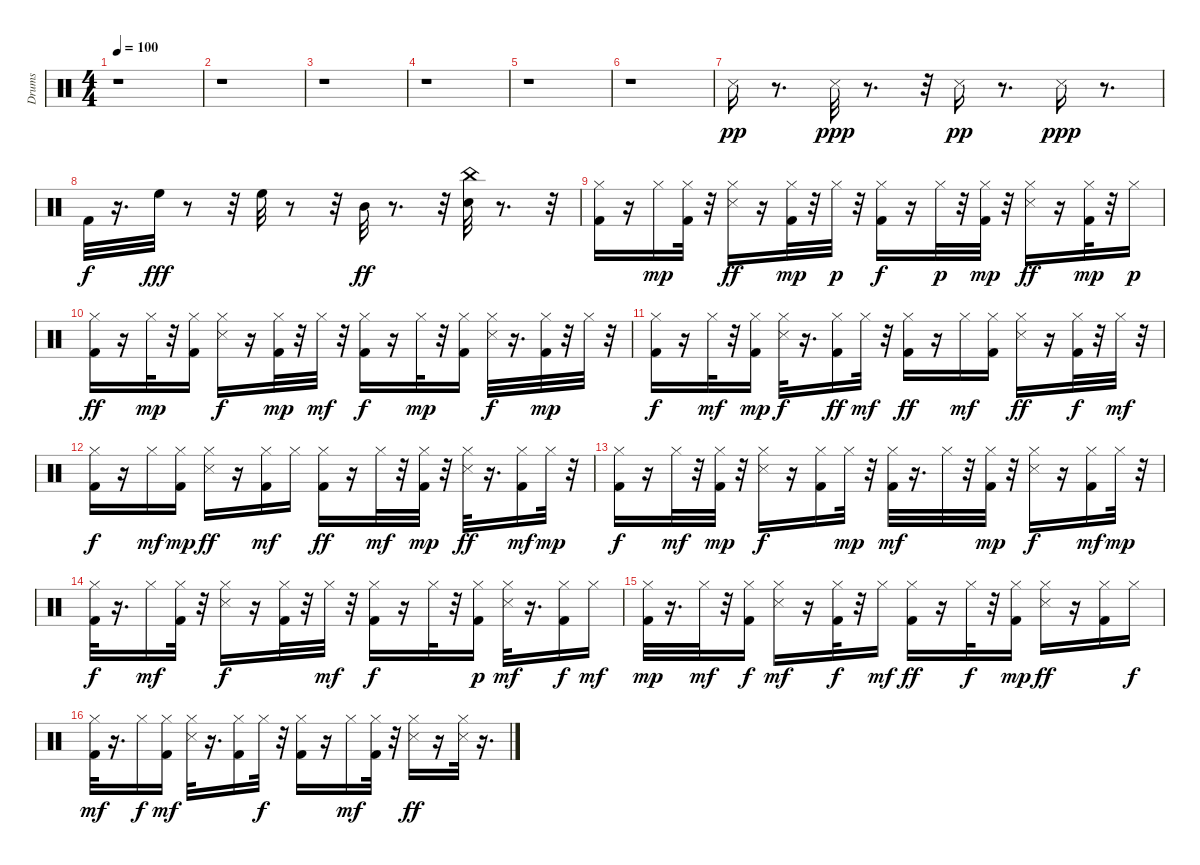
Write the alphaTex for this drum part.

\track ("Drums" "Drums") {instrument percussion}
\staff {score}
\articulation defaults
\ts (4 4)
\tempo 100
\clef neutral
\ks c
r.1{dy pp} |
r.1 |
r.1 |
r.1 |
r.1 |
r.1 |
"Snare (side stick) 3".16 r.8{d} "Snare (side stick) 3".32{dy ppp} r.8{d} r.32 "Snare (side stick) 3".16{dy pp} r.8{d} "Snare (side stick) 3".16{dy ppp} r.8{d} |
"Kick (hit) 2".32{dy f} r.16{d} "High Floor Tom (hit)".32{dy fff} r.8 r.32 "High Floor Tom (hit)".32 r.8 r.32 "Mid Tom (hit)".32{dy ff} r.8{d} r.32 ("China (hit)" "Snare (hit) 2").32 r.8{d} r.32 |
("Kick (hit) 2" "Hi-Hat (closed)").16 r.16 "Hi-Hat (closed)".16{dy mp} ("Kick (hit) 2" "Hi-Hat (closed)").32 r.32 ("Hi-Hat (closed)" "Snare (side stick) 3").16{dy ff} r.16 ("Hi-Hat (closed)" "Kick (hit) 2").32{dy mp} r.32 "Hi-Hat (closed)".32{dy p} r.32 ("Kick (hit) 2" "Hi-Hat (closed)").16{dy f} r.16 "Hi-Hat (closed)".32{dy p} r.32 ("Kick (hit) 2" "Hi-Hat (closed)").32{dy mp} r.32 ("Hi-Hat (closed)" "Snare (side stick) 3").16{dy ff} r.16 ("Kick (hit) 2" "Hi-Hat (closed)").32{dy mp} r.32 "Hi-Hat (closed)".16{dy p} |
("Kick (hit) 2" "Hi-Hat (closed)").16{dy ff} r.16 "Hi-Hat (closed)".32{dy mp} r.32 ("Kick (hit) 2" "Hi-Hat (closed)").16 ("Hi-Hat (closed)" "Snare (side stick) 3").16{dy f} r.16 ("Kick (hit) 2" "Hi-Hat (closed)").32{dy mp} r.32 "Hi-Hat (closed)".32{dy mf} r.32 ("Kick (hit) 2" "Hi-Hat (closed)").16{dy f} r.16 "Hi-Hat (closed)".32{dy mp} r.32 ("Hi-Hat (closed)" "Kick (hit) 2").16 ("Hi-Hat (closed)" "Snare (side stick) 3").32{dy f} r.16{d} ("Kick (hit) 2" "Hi-Hat (closed)").32{dy mp} r.32 "Hi-Hat (closed)".32 r.32 |
("Hi-Hat (closed)" "Kick (hit) 2").16{dy f} r.16 "Hi-Hat (closed)".32{dy mf} r.32 ("Hi-Hat (closed)" "Kick (hit) 2").16{dy mp} ("Hi-Hat (closed)" "Snare (side stick) 3").32{dy f} r.16{d} ("Hi-Hat (closed)" "Kick (hit) 2").16{dy ff} "Hi-Hat (closed)".32{dy mf} r.32 ("Hi-Hat (closed)" "Kick (hit) 2").16{dy ff} r.16 "Hi-Hat (closed)".16{dy mf} ("Kick (hit) 2" "Hi-Hat (closed)").16 ("Hi-Hat (closed)" "Snare (side stick) 3").16{dy ff} r.16 ("Hi-Hat (closed)" "Kick (hit) 2").32{dy f} r.32 "Hi-Hat (closed)".32{dy mf} r.32 |
("Hi-Hat (closed)" "Kick (hit) 2").16{dy f} r.16 "Hi-Hat (closed)".16{dy mf} ("Kick (hit) 2" "Hi-Hat (closed)").16{dy mp} ("Hi-Hat (closed)" "Snare (side stick) 3").16{dy ff} r.16 ("Kick (hit) 2" "Hi-Hat (closed)").16{dy mf} "Hi-Hat (closed)".16 ("Kick (hit) 2" "Hi-Hat (closed)").16{dy ff} r.16 "Hi-Hat (closed)".32{dy mf} r.32 ("Kick (hit) 2" "Hi-Hat (closed)").32{dy mp} r.32 ("Snare (side stick) 3" "Hi-Hat (closed)").32{dy ff} r.16{d} ("Hi-Hat (closed)" "Kick (hit) 2").16{dy mf} "Hi-Hat (closed)".32{dy mp} r.32 |
("Kick (hit) 2" "Hi-Hat (closed)").16{dy f} r.16 "Hi-Hat (closed)".32{dy mf} r.32 ("Hi-Hat (closed)" "Kick (hit) 2").32{dy mp} r.32 ("Hi-Hat (closed)" "Snare (side stick) 3").16{dy f} r.16 ("Hi-Hat (closed)" "Kick (hit) 2").16 "Hi-Hat (closed)".32{dy mp} r.32 ("Kick (hit) 2" "Hi-Hat (closed)").32{dy mf} r.16{d} "Hi-Hat (closed)".32 r.32 ("Kick (hit) 2" "Hi-Hat (closed)").32{dy mp} r.32 ("Hi-Hat (closed)" "Snare (side stick) 3").16{dy f} r.16 ("Kick (hit) 2" "Hi-Hat (closed)").16{dy mf} "Hi-Hat (closed)".32{dy mp} r.32 |
("Hi-Hat (closed)" "Kick (hit) 2").32{dy f} r.16{d} "Hi-Hat (closed)".16{dy mf} ("Kick (hit) 2" "Hi-Hat (closed)").32 r.32 ("Hi-Hat (closed)" "Snare (side stick) 3").16{dy f} r.16 ("Kick (hit) 2" "Hi-Hat (closed)").32 r.32 "Hi-Hat (closed)".32{dy mf} r.32 ("Hi-Hat (closed)" "Kick (hit) 2").16{dy f} r.16 "Hi-Hat (closed)".32 r.32 ("Kick (hit) 2" "Hi-Hat (closed)").16{dy p} ("Hi-Hat (closed)" "Snare (side stick) 3").32{dy mf} r.16{d} ("Kick (hit) 2" "Hi-Hat (closed)").16{dy f} "Hi-Hat (closed)".16{dy mf} |
("Hi-Hat (closed)" "Kick (hit) 2").32{dy mp} r.16{d} "Hi-Hat (closed)".32{dy mf} r.32 ("Hi-Hat (closed)" "Kick (hit) 2").16{dy f} ("Hi-Hat (closed)" "Snare (side stick) 3").16{dy mf} r.16 ("Hi-Hat (closed)" "Kick (hit) 2").32{dy f} r.32 "Hi-Hat (closed)".16{dy mf} ("Hi-Hat (closed)" "Kick (hit) 2").16{dy ff} r.16 "Hi-Hat (closed)".32{dy f} r.32 ("Hi-Hat (closed)" "Kick (hit) 2").16{dy mp} ("Hi-Hat (closed)" "Snare (side stick) 3").16{dy ff} r.16 ("Kick (hit) 2" "Hi-Hat (closed)").16 "Hi-Hat (closed)".16{dy f} |
("Hi-Hat (closed)" "Kick (hit) 2").32{dy mf} r.16{d} "Hi-Hat (closed)".16{dy f} ("Kick (hit) 2" "Hi-Hat (closed)").16{dy mf} ("Hi-Hat (closed)" "Snare (side stick) 3").32 r.16{d} ("Kick (hit) 2" "Hi-Hat (closed)").16 "Hi-Hat (closed)".32{dy f} r.32 ("Hi-Hat (closed)" "Kick (hit) 2").16 r.16 "Hi-Hat (closed)".16{dy mf} ("Hi-Hat (closed)" "Kick (hit) 2").32 r.32 ("Hi-Hat (closed)" "Snare (side stick) 3").16{dy ff} r.16 ("Hi-Hat (closed)" "Snare (side stick) 3").32 r.16{d}
